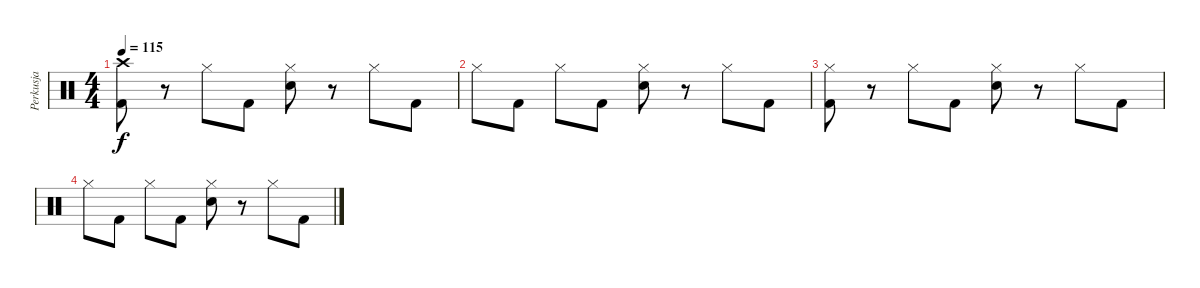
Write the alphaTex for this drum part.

\track ("Perkusja" "Perkusja") {instrument percussion}
\staff {score}
\articulation defaults
\ts (4 4)
\tempo 115
\clef neutral
\ks c
("Crash high (hit)" "Kick (hit) 2").8{dy f} r.8 "Hi-Hat (closed)".8 "Kick (hit) 2".8 ("Hi-Hat (closed)" "Electric Snare (hit)").8 r.8 "Hi-Hat (closed)".8 "Kick (hit) 2".8 |
"Hi-Hat (closed)".8 "Kick (hit) 2".8 "Hi-Hat (closed)".8 "Kick (hit) 2".8 ("Hi-Hat (closed)" "Electric Snare (hit)").8 r.8 "Hi-Hat (closed)".8 "Kick (hit) 2".8 |
("Hi-Hat (closed)" "Kick (hit) 2").8 r.8 "Hi-Hat (closed)".8 "Kick (hit) 2".8 ("Hi-Hat (closed)" "Electric Snare (hit)").8 r.8 "Hi-Hat (closed)".8 "Kick (hit) 2".8 |
"Hi-Hat (closed)".8 "Kick (hit) 2".8 "Hi-Hat (closed)".8 "Kick (hit) 2".8 ("Hi-Hat (closed)" "Electric Snare (hit)").8 r.8 "Hi-Hat (closed)".8 "Kick (hit) 2".8
